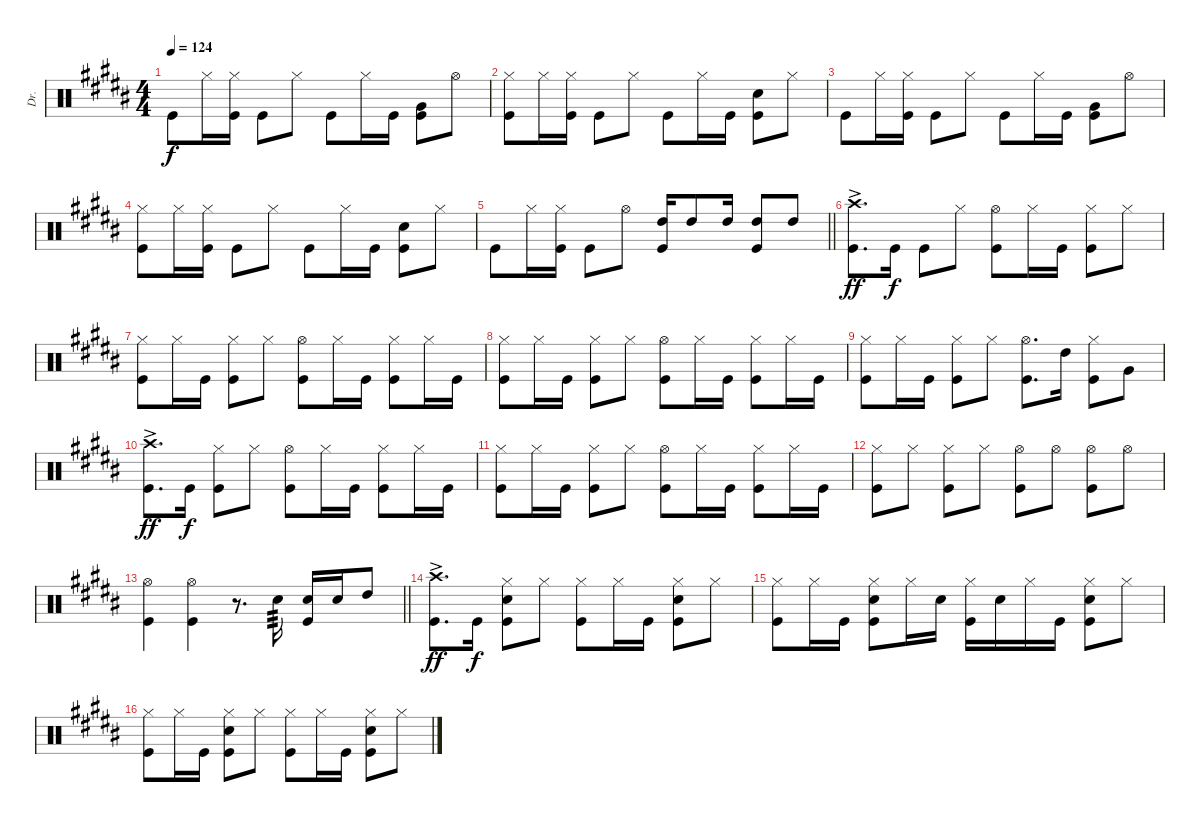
\track ("Dr." "Dr.") {instrument percussion}
\staff {score}
\articulation defaults
\ts (4 4)
\tempo 124
\clef neutral
\ks b "Kick (hit)".8{dy f} "Hi-Hat (closed)".16
("Hi-Hat (closed)" "Kick (hit)").16 "Kick (hit)".8 "Hi-Hat (closed)".8 "Kick (hit)".8 "Hi-Hat (closed)".16 "Kick (hit)".16 ("Kick (hit)" "Very Low Tom (hit)").8 "Hi-Hat (open)".8 |
("Kick (hit)" "Hi-Hat (closed)").8 "Hi-Hat (closed)".16 ("Hi-Hat (closed)" "Kick (hit)").16 "Kick (hit)".8 "Hi-Hat (closed)".8 "Kick (hit)".8 "Hi-Hat (closed)".16 "Kick (hit)".16 ("Kick (hit)" "Snare (hit) 2").8 "Hi-Hat (closed)".8 |
"Kick (hit)".8 "Hi-Hat (closed)".16 ("Hi-Hat (closed)" "Kick (hit)").16 "Kick (hit)".8 "Hi-Hat (closed)".8 "Kick (hit)".8 "Hi-Hat (closed)".16 "Kick (hit)".16 ("Kick (hit)" "Very Low Tom (hit)").8 "Hi-Hat (open)".8 |
("Kick (hit)" "Hi-Hat (closed)").8 "Hi-Hat (closed)".16 ("Hi-Hat (closed)" "Kick (hit)").16 "Kick (hit)".8 "Hi-Hat (closed)".8 "Kick (hit)".8 "Hi-Hat (closed)".16 "Kick (hit)".16 ("Kick (hit)" "Snare (hit) 2").8 "Hi-Hat (closed)".8 |
\barLineRight lightlight "Kick (hit)".8 "Hi-Hat (closed)".16
("Hi-Hat (closed)" "Kick (hit)").16 "Kick (hit)".8 "Hi-Hat (open)".8 ("Kick (hit)" "High Tom (hit)").16 "High Tom (hit)".8 "High Tom (hit)".16 ("Kick (hit)" "High Tom (hit)").8 "High Tom (hit)".8 |
("Crash high (hit)"{ac} "Kick (hit)"{ac}).8{d dy ff} "Kick (hit)".16{dy f} "Kick (hit)".8 "Hi-Hat (closed)".8 ("Kick (hit)" "Hi-Hat (open)").8 "Hi-Hat (closed)".16 "Kick (hit)".16 ("Hi-Hat (closed)" "Kick (hit)").8 "Hi-Hat (closed)".8 |
("Kick (hit)" "Hi-Hat (closed)").8 "Hi-Hat (closed)".16 "Kick (hit)".16 ("Hi-Hat (closed)" "Kick (hit)").8 "Hi-Hat (closed)".8 ("Hi-Hat (open)" "Kick (hit)").8 "Hi-Hat (closed)".16 "Kick (hit)".16 ("Hi-Hat (closed)" "Kick (hit)").8 "Hi-Hat (closed)".16 "Kick (hit)".16 |
("Kick (hit)" "Hi-Hat (closed)").8 "Hi-Hat (closed)".16 "Kick (hit)".16 ("Hi-Hat (closed)" "Kick (hit)").8 "Hi-Hat (closed)".8 ("Hi-Hat (open)" "Kick (hit)").8 "Hi-Hat (closed)".16 "Kick (hit)".16 ("Hi-Hat (closed)" "Kick (hit)").8 "Hi-Hat (closed)".16 "Kick (hit)".16 |
("Kick (hit)" "Hi-Hat (closed)").8 "Hi-Hat (closed)".16 "Kick (hit)".16 ("Hi-Hat (closed)" "Kick (hit)").8 "Hi-Hat (closed)".8 ("Hi-Hat (open)" "Kick (hit)").8{d} "High Tom (hit)".16 ("Hi-Hat (closed)" "Kick (hit)").8 "Very Low Tom (hit)".8 |
("Crash high (hit)"{ac} "Kick (hit)"{ac}).8{d dy ff} "Kick (hit)".16{dy f} ("Kick (hit)" "Hi-Hat (closed)").8 "Hi-Hat (closed)".8 ("Kick (hit)" "Hi-Hat (open)").8 "Hi-Hat (closed)".16 "Kick (hit)".16 ("Hi-Hat (closed)" "Kick (hit)").8 "Hi-Hat (closed)".16 "Kick (hit)".16 |
("Kick (hit)" "Hi-Hat (closed)").8 "Hi-Hat (closed)".16 "Kick (hit)".16 ("Hi-Hat (closed)" "Kick (hit)").8 "Hi-Hat (closed)".8 ("Hi-Hat (open)" "Kick (hit)").8 "Hi-Hat (closed)".16 "Kick (hit)".16 ("Hi-Hat (closed)" "Kick (hit)").8 "Hi-Hat (closed)".16 "Kick (hit)".16 |
("Hi-Hat (closed)" "Kick (hit)").8 "Hi-Hat (closed)".8 ("Hi-Hat (closed)" "Kick (hit)").8 "Hi-Hat (closed)".8 ("Hi-Hat (open)" "Kick (hit)").8 "Hi-Hat (open)".8 ("Hi-Hat (open)" "Kick (hit)").8 "Hi-Hat (open)".8 |
\barLineRight lightlight
("Kick (hit)" "Hi-Hat (open)").4 ("Hi-Hat (open)" "Kick (hit)").4 r.8{d} "Snare (hit) 2".16{tp 3} ("Snare (hit) 2" "Kick (hit)").16 "Snare (hit) 2".16 "High Tom (hit)".8 |
("Crash high (hit)"{ac} "Kick (hit)"{ac}).8{d dy ff} "Kick (hit)".16{dy f} ("Kick (hit)" "Snare (hit) 2" "Hi-Hat (closed)").8 "Hi-Hat (closed)".8 ("Hi-Hat (closed)" "Kick (hit)").8 "Hi-Hat (closed)".16 "Kick (hit)".16 ("Hi-Hat (closed)" "Kick (hit)" "Snare (hit) 2").8 "Hi-Hat (closed)".8 |
("Hi-Hat (closed)" "Kick (hit)").8 "Hi-Hat (closed)".16 "Kick (hit)".16 ("Hi-Hat (closed)" "Kick (hit)" "Snare (hit) 2").8 "Hi-Hat (closed)".16 "Snare (hit) 2".16 ("Kick (hit)" "Hi-Hat (closed)").16 "Snare (hit) 2".16 "Hi-Hat (closed)".16 "Kick (hit)".16 ("Hi-Hat (closed)" "Kick (hit)" "Snare (hit) 2").8 "Hi-Hat (closed)".8 |
("Kick (hit)" "Hi-Hat (closed)").8 "Hi-Hat (closed)".16 "Kick (hit)".16 ("Kick (hit)" "Snare (hit) 2" "Hi-Hat (closed)").8 "Hi-Hat (closed)".8 ("Hi-Hat (closed)" "Kick (hit)").8 "Hi-Hat (closed)".16 "Kick (hit)".16 ("Hi-Hat (closed)" "Kick (hit)" "Snare (hit) 2").8 "Hi-Hat (closed)".8
